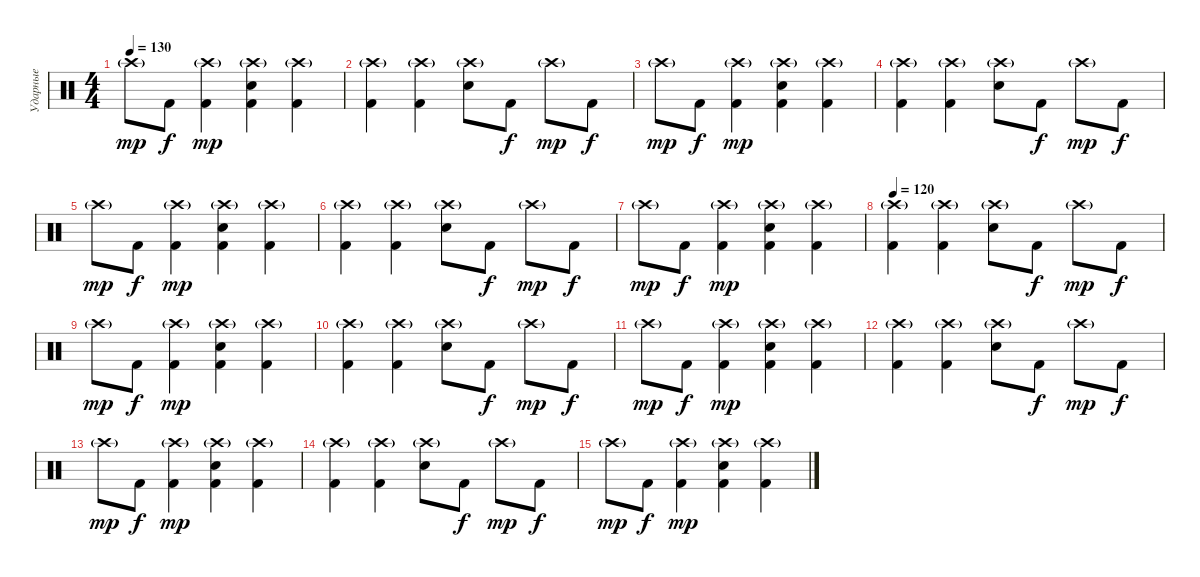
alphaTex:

\track ("Ударные" "Ударные") {instrument percussion}
\staff {score}
\articulation defaults
\ts (4 4)
\tempo 130
\clef neutral
\ks c "Crash high (hit)"{g}.8{dy mp} "Kick (hit) 2".8{dy f}
("Crash high (hit)"{g} "Kick (hit) 2").4{dy mp} ("Crash high (hit)"{g} "Electric Snare (hit)" "Kick (hit) 2").4 ("Crash high (hit)"{g} "Kick (hit) 2").4 |
("Crash high (hit)"{g} "Kick (hit) 2").4 ("Crash high (hit)"{g} "Kick (hit) 2").4 ("Crash high (hit)"{g} "Electric Snare (hit)").8 "Kick (hit) 2".8{dy f} "Crash high (hit)"{g}.8{dy mp} "Kick (hit) 2".8{dy f} |
"Crash high (hit)"{g}.8{dy mp} "Kick (hit) 2".8{dy f} ("Crash high (hit)"{g} "Kick (hit) 2").4{dy mp} ("Crash high (hit)"{g} "Electric Snare (hit)" "Kick (hit) 2").4 ("Crash high (hit)"{g} "Kick (hit) 2").4 |
("Crash high (hit)"{g} "Kick (hit) 2").4 ("Crash high (hit)"{g} "Kick (hit) 2").4 ("Crash high (hit)"{g} "Electric Snare (hit)").8 "Kick (hit) 2".8{dy f} "Crash high (hit)"{g}.8{dy mp} "Kick (hit) 2".8{dy f} |
"Crash high (hit)"{g}.8{dy mp} "Kick (hit) 2".8{dy f} ("Crash high (hit)"{g} "Kick (hit) 2").4{dy mp} ("Crash high (hit)"{g} "Electric Snare (hit)" "Kick (hit) 2").4 ("Crash high (hit)"{g} "Kick (hit) 2").4 |
("Crash high (hit)"{g} "Kick (hit) 2").4 ("Crash high (hit)"{g} "Kick (hit) 2").4 ("Crash high (hit)"{g} "Electric Snare (hit)").8 "Kick (hit) 2".8{dy f} "Crash high (hit)"{g}.8{dy mp} "Kick (hit) 2".8{dy f} |
"Crash high (hit)"{g}.8{dy mp} "Kick (hit) 2".8{dy f} ("Crash high (hit)"{g} "Kick (hit) 2").4{dy mp} ("Crash high (hit)"{g} "Electric Snare (hit)" "Kick (hit) 2").4 ("Crash high (hit)"{g} "Kick (hit) 2").4 |
\tempo 120
("Crash high (hit)"{g} "Kick (hit) 2").4 ("Crash high (hit)"{g} "Kick (hit) 2").4 ("Crash high (hit)"{g} "Electric Snare (hit)").8 "Kick (hit) 2".8{dy f} "Crash high (hit)"{g}.8{dy mp} "Kick (hit) 2".8{dy f} |
"Crash high (hit)"{g}.8{dy mp} "Kick (hit) 2".8{dy f} ("Crash high (hit)"{g} "Kick (hit) 2").4{dy mp} ("Crash high (hit)"{g} "Electric Snare (hit)" "Kick (hit) 2").4 ("Crash high (hit)"{g} "Kick (hit) 2").4 |
("Crash high (hit)"{g} "Kick (hit) 2").4 ("Crash high (hit)"{g} "Kick (hit) 2").4 ("Crash high (hit)"{g} "Electric Snare (hit)").8 "Kick (hit) 2".8{dy f} "Crash high (hit)"{g}.8{dy mp} "Kick (hit) 2".8{dy f} |
"Crash high (hit)"{g}.8{dy mp} "Kick (hit) 2".8{dy f} ("Crash high (hit)"{g} "Kick (hit) 2").4{dy mp} ("Crash high (hit)"{g} "Electric Snare (hit)" "Kick (hit) 2").4 ("Crash high (hit)"{g} "Kick (hit) 2").4 |
("Crash high (hit)"{g} "Kick (hit) 2").4 ("Crash high (hit)"{g} "Kick (hit) 2").4 ("Crash high (hit)"{g} "Electric Snare (hit)").8 "Kick (hit) 2".8{dy f} "Crash high (hit)"{g}.8{dy mp} "Kick (hit) 2".8{dy f} |
"Crash high (hit)"{g}.8{dy mp} "Kick (hit) 2".8{dy f} ("Crash high (hit)"{g} "Kick (hit) 2").4{dy mp} ("Crash high (hit)"{g} "Electric Snare (hit)" "Kick (hit) 2").4 ("Crash high (hit)"{g} "Kick (hit) 2").4 |
("Crash high (hit)"{g} "Kick (hit) 2").4 ("Crash high (hit)"{g} "Kick (hit) 2").4 ("Crash high (hit)"{g} "Electric Snare (hit)").8 "Kick (hit) 2".8{dy f} "Crash high (hit)"{g}.8{dy mp} "Kick (hit) 2".8{dy f} |
"Crash high (hit)"{g}.8{dy mp} "Kick (hit) 2".8{dy f} ("Crash high (hit)"{g} "Kick (hit) 2").4{dy mp} ("Crash high (hit)"{g} "Electric Snare (hit)" "Kick (hit) 2").4 ("Crash high (hit)"{g} "Kick (hit) 2").4
